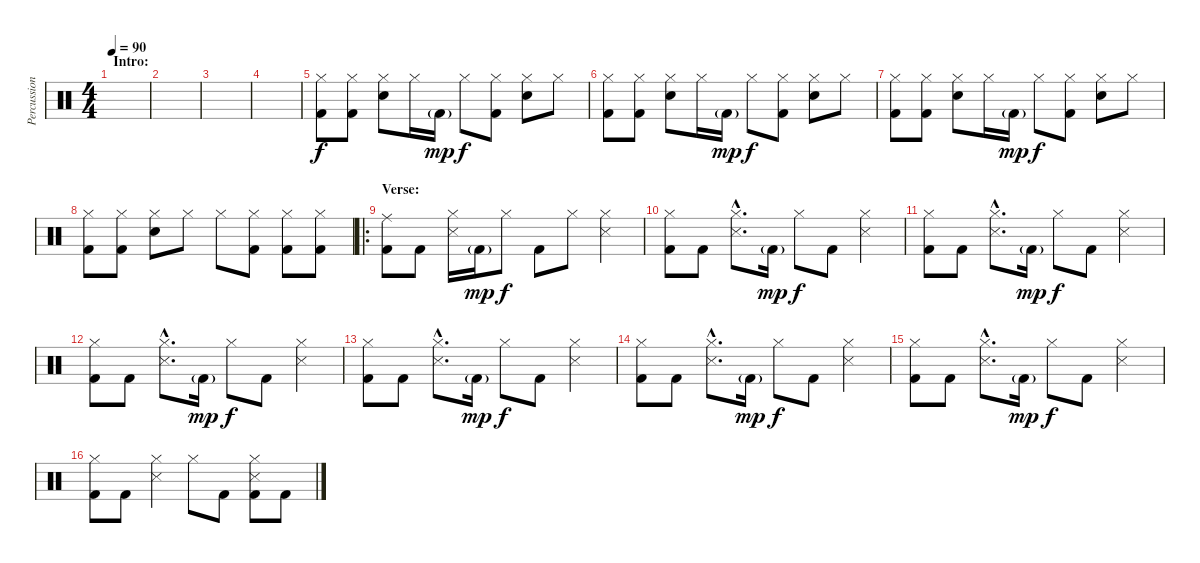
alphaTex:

\track ("Percussion" "Percussion") {instrument percussion}
\staff {score}
\articulation defaults
\ts (4 4)
\section ("" "Intro:")
\tempo 90
\clef neutral
\ks c
|
|
|
|
("Hi-Hat (closed)" "Kick (hit) 2").8 ("Hi-Hat (closed)" "Kick (hit) 2").8 ("Hi-Hat (closed)" "Electric Snare (hit)").8 "Hi-Hat (closed)".16 "Kick (hit) 2"{g}.16{dy mp} "Hi-Hat (closed)".8{dy f} ("Hi-Hat (closed)" "Kick (hit) 2").8 ("Hi-Hat (closed)" "Electric Snare (hit)").8 "Hi-Hat (closed)".8 |
("Hi-Hat (closed)" "Kick (hit) 2").8 ("Hi-Hat (closed)" "Kick (hit) 2").8 ("Hi-Hat (closed)" "Electric Snare (hit)").8 "Hi-Hat (closed)".16 "Kick (hit) 2"{g}.16{dy mp} "Hi-Hat (closed)".8{dy f} ("Hi-Hat (closed)" "Kick (hit) 2").8 ("Hi-Hat (closed)" "Electric Snare (hit)").8 "Hi-Hat (closed)".8 |
("Hi-Hat (closed)" "Kick (hit) 2").8 ("Hi-Hat (closed)" "Kick (hit) 2").8 ("Hi-Hat (closed)" "Electric Snare (hit)").8 "Hi-Hat (closed)".16 "Kick (hit) 2"{g}.16{dy mp} "Hi-Hat (closed)".8{dy f} ("Hi-Hat (closed)" "Kick (hit) 2").8 ("Hi-Hat (closed)" "Electric Snare (hit)").8 "Hi-Hat (closed)".8 |
("Hi-Hat (closed)" "Kick (hit) 2").8 ("Hi-Hat (closed)" "Kick (hit) 2").8 ("Hi-Hat (closed)" "Electric Snare (hit)").8 "Hi-Hat (closed)".8 "Hi-Hat (closed)".8 ("Hi-Hat (closed)" "Kick (hit) 2").8 ("Hi-Hat (closed)" "Kick (hit) 2").8 ("Hi-Hat (closed)" "Kick (hit) 2").8 |
\ro
\section ("" "Verse:")
("Ride (middle)" "Kick (hit) 2").8 "Kick (hit) 2".8 ("Hi-Hat (closed)" "Snare (side stick) 3").16 "Kick (hit) 2"{g}.16{dy mp} "Hi-Hat (closed)".8{dy f} "Kick (hit) 2".8 "Hi-Hat (closed)".8 ("Hi-Hat (closed)" "Snare (side stick) 3").4 |
("Hi-Hat (closed)" "Kick (hit) 2").8 "Kick (hit) 2".8 ("Hi-Hat (closed)"{hac} "Snare (side stick) 3"{hac}).8{d} "Kick (hit) 2"{g}.16{dy mp} "Hi-Hat (closed)".8{dy f} "Kick (hit) 2".8 ("Hi-Hat (closed)" "Snare (side stick) 3").4 |
("Hi-Hat (closed)" "Kick (hit) 2").8 "Kick (hit) 2".8 ("Hi-Hat (closed)"{hac} "Snare (side stick) 3"{hac}).8{d} "Kick (hit) 2"{g}.16{dy mp} "Hi-Hat (closed)".8{dy f} "Kick (hit) 2".8 ("Hi-Hat (closed)" "Snare (side stick) 3").4 |
("Hi-Hat (closed)" "Kick (hit) 2").8 "Kick (hit) 2".8 ("Hi-Hat (closed)"{hac} "Snare (side stick) 3"{hac}).8{d} "Kick (hit) 2"{g}.16{dy mp} "Hi-Hat (closed)".8{dy f} "Kick (hit) 2".8 ("Hi-Hat (closed)" "Snare (side stick) 3").4 |
("Hi-Hat (closed)" "Kick (hit) 2").8 "Kick (hit) 2".8 ("Hi-Hat (closed)"{hac} "Snare (side stick) 3"{hac}).8{d} "Kick (hit) 2"{g}.16{dy mp} "Hi-Hat (closed)".8{dy f} "Kick (hit) 2".8 ("Hi-Hat (closed)" "Snare (side stick) 3").4 |
("Hi-Hat (closed)" "Kick (hit) 2").8 "Kick (hit) 2".8 ("Hi-Hat (closed)"{hac} "Snare (side stick) 3"{hac}).8{d} "Kick (hit) 2"{g}.16{dy mp} "Hi-Hat (closed)".8{dy f} "Kick (hit) 2".8 ("Hi-Hat (closed)" "Snare (side stick) 3").4 |
("Hi-Hat (closed)" "Kick (hit) 2").8 "Kick (hit) 2".8 ("Hi-Hat (closed)"{hac} "Snare (side stick) 3"{hac}).8{d} "Kick (hit) 2"{g}.16{dy mp} "Hi-Hat (closed)".8{dy f} "Kick (hit) 2".8 ("Hi-Hat (closed)" "Snare (side stick) 3").4 |
("Hi-Hat (closed)" "Kick (hit) 2").8 "Kick (hit) 2".8 ("Hi-Hat (closed)" "Snare (side stick) 3").4 "Hi-Hat (closed)".8 "Kick (hit) 2".8 ("Hi-Hat (closed)" "Snare (side stick) 3" "Kick (hit) 2").8 "Kick (hit) 2".8
